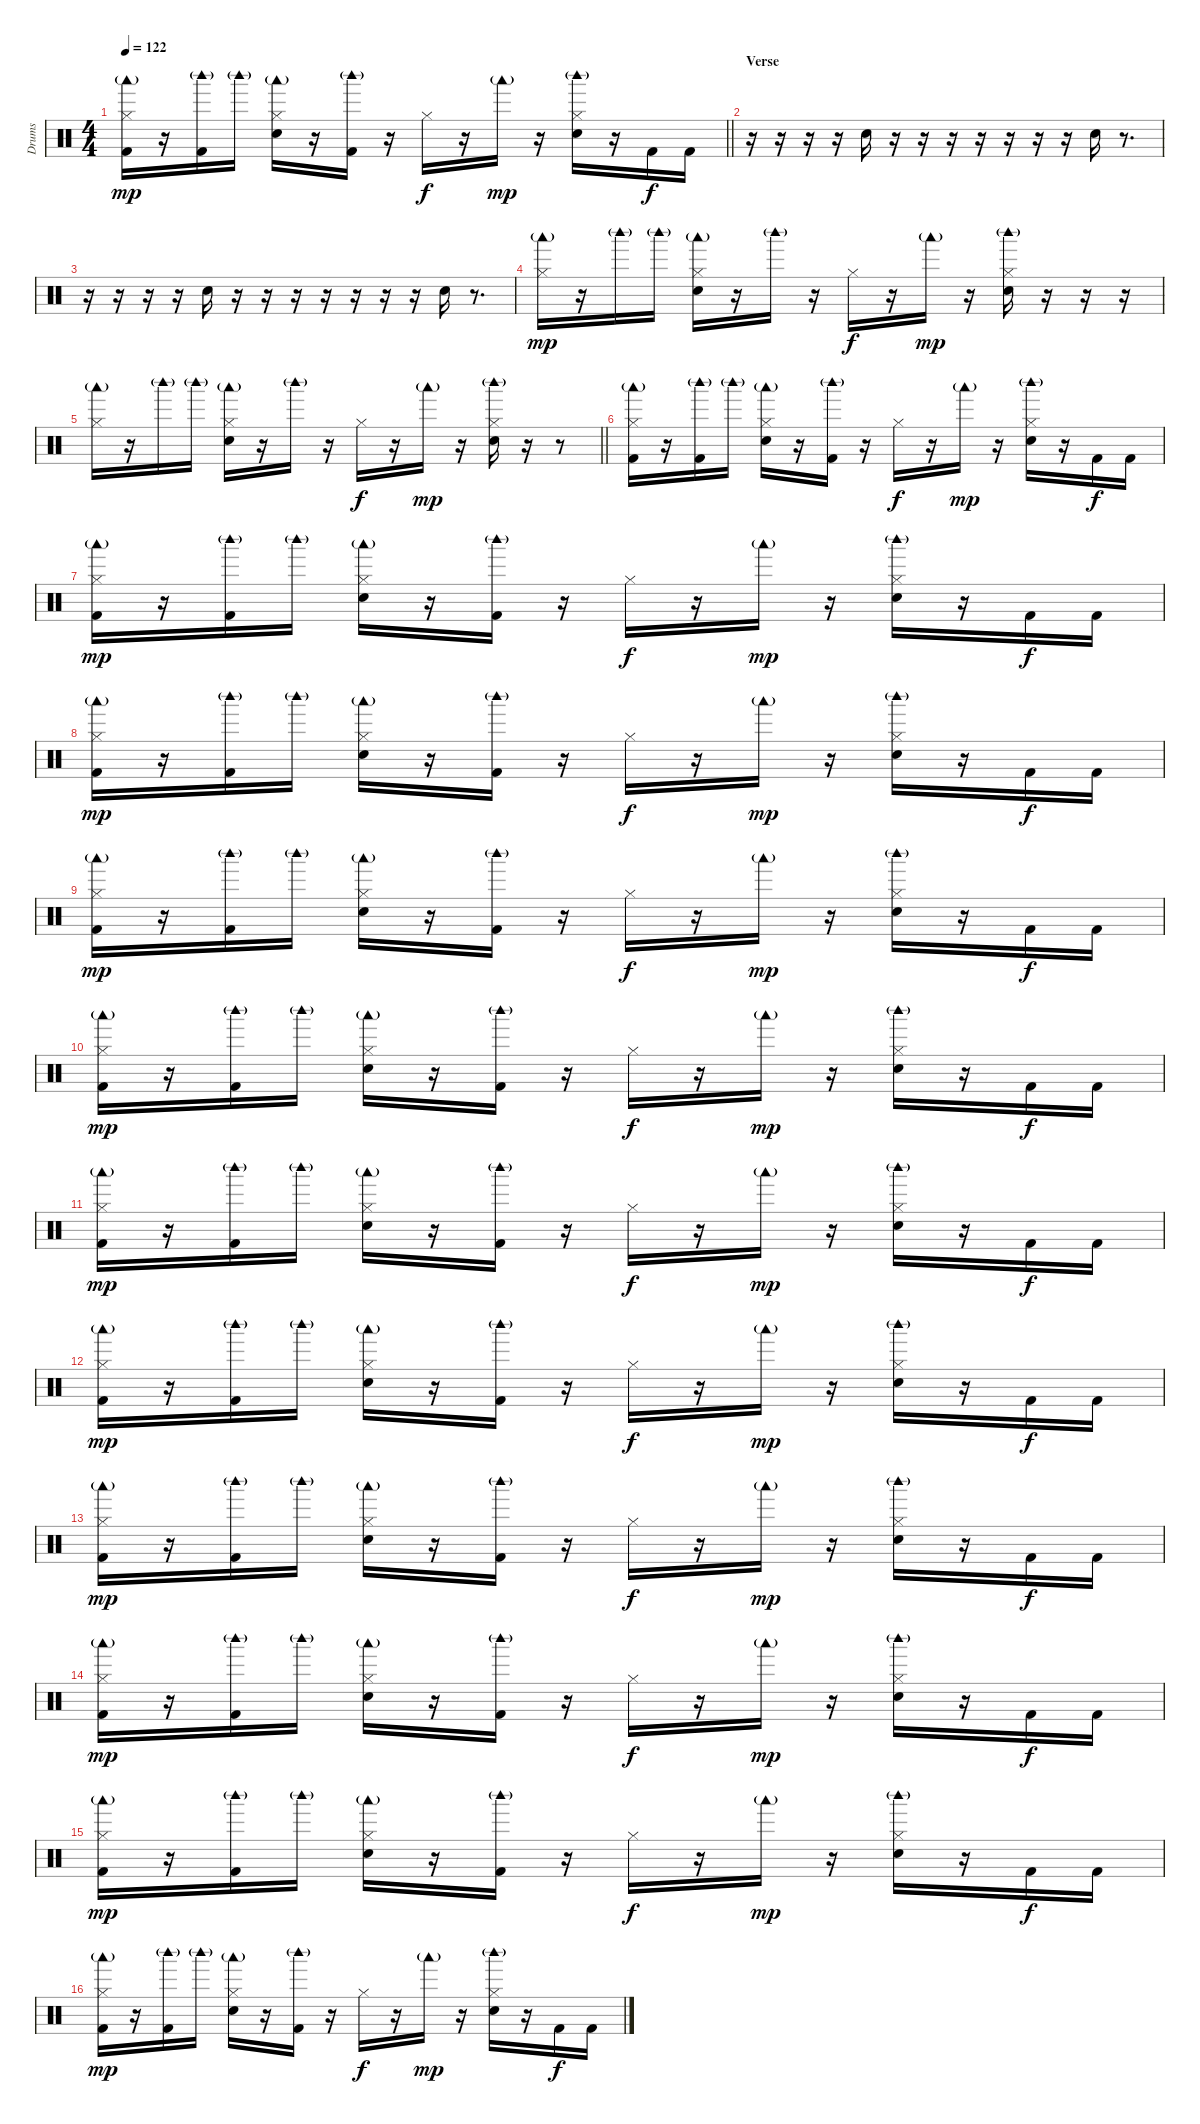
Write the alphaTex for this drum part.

\track ("Drums" "Drums") {instrument percussion}
\staff {score}
\articulation defaults
\ts (4 4)
\tempo 122
\clef neutral
\barLineRight lightlight
\ks c
("Hi-Hat (closed)" "Woodblock low (hit)"{g} "Kick (hit) 2").16{dy mp} r.16 ("Woodblock high (hit)"{g} "Kick (hit) 2").16 "Woodblock high (hit)"{g}.16 ("Hi-Hat (closed)" "Hand Clap (hit)" "Woodblock low (hit)"{g}).16 r.16 ("Woodblock high (hit)"{g} "Kick (hit) 2").16 r.16 "Hi-Hat (closed)".16{dy f} r.16 "Woodblock low (hit)"{g}.16{dy mp} r.16 ("Hi-Hat (closed)" "Hand Clap (hit)" "Woodblock high (hit)"{g}).16 r.16 "Kick (hit) 2".16{dy f} "Kick (hit) 2".16 |
\section ("" "Verse")
r.16 r.16 r.16 r.16 "Hand Clap (hit)".16 r.16 r.16 r.16 r.16 r.16 r.16 r.16 "Hand Clap (hit)".16 r.8{d} |
r.16 r.16 r.16 r.16 "Hand Clap (hit)".16 r.16 r.16 r.16 r.16 r.16 r.16 r.16 "Hand Clap (hit)".16 r.8{d} |
("Hi-Hat (closed)" "Woodblock low (hit)"{g}).16{dy mp} r.16 "Woodblock high (hit)"{g}.16 "Woodblock high (hit)"{g}.16 ("Hi-Hat (closed)" "Hand Clap (hit)" "Woodblock low (hit)"{g}).16 r.16 "Woodblock high (hit)"{g}.16 r.16 "Hi-Hat (closed)".16{dy f} r.16 "Woodblock low (hit)"{g}.16{dy mp} r.16 ("Hi-Hat (closed)" "Hand Clap (hit)" "Woodblock high (hit)"{g}).16 r.16 r.16 r.16 |
\barLineRight lightlight
("Hi-Hat (closed)" "Woodblock low (hit)"{g}).16 r.16 "Woodblock high (hit)"{g}.16 "Woodblock high (hit)"{g}.16 ("Hi-Hat (closed)" "Hand Clap (hit)" "Woodblock low (hit)"{g}).16 r.16 "Woodblock high (hit)"{g}.16 r.16 "Hi-Hat (closed)".16{dy f} r.16 "Woodblock low (hit)"{g}.16{dy mp} r.16 ("Hi-Hat (closed)" "Hand Clap (hit)" "Woodblock high (hit)"{g}).16 r.16 r.8 |
("Hi-Hat (closed)" "Woodblock low (hit)"{g} "Kick (hit) 2").16 r.16 ("Woodblock high (hit)"{g} "Kick (hit) 2").16 "Woodblock high (hit)"{g}.16 ("Hi-Hat (closed)" "Hand Clap (hit)" "Woodblock low (hit)"{g}).16 r.16 ("Woodblock high (hit)"{g} "Kick (hit) 2").16 r.16 "Hi-Hat (closed)".16{dy f} r.16 "Woodblock low (hit)"{g}.16{dy mp} r.16 ("Hi-Hat (closed)" "Hand Clap (hit)" "Woodblock high (hit)"{g}).16 r.16 "Kick (hit) 2".16{dy f} "Kick (hit) 2".16 |
("Hi-Hat (closed)" "Woodblock low (hit)"{g} "Kick (hit) 2").16{dy mp} r.16 ("Woodblock high (hit)"{g} "Kick (hit) 2").16 "Woodblock high (hit)"{g}.16 ("Hi-Hat (closed)" "Hand Clap (hit)" "Woodblock low (hit)"{g}).16 r.16 ("Woodblock high (hit)"{g} "Kick (hit) 2").16 r.16 "Hi-Hat (closed)".16{dy f} r.16 "Woodblock low (hit)"{g}.16{dy mp} r.16 ("Hi-Hat (closed)" "Hand Clap (hit)" "Woodblock high (hit)"{g}).16 r.16 "Kick (hit) 2".16{dy f} "Kick (hit) 2".16 |
("Hi-Hat (closed)" "Woodblock low (hit)"{g} "Kick (hit) 2").16{dy mp} r.16 ("Woodblock high (hit)"{g} "Kick (hit) 2").16 "Woodblock high (hit)"{g}.16 ("Hi-Hat (closed)" "Hand Clap (hit)" "Woodblock low (hit)"{g}).16 r.16 ("Woodblock high (hit)"{g} "Kick (hit) 2").16 r.16 "Hi-Hat (closed)".16{dy f} r.16 "Woodblock low (hit)"{g}.16{dy mp} r.16 ("Hi-Hat (closed)" "Hand Clap (hit)" "Woodblock high (hit)"{g}).16 r.16 "Kick (hit) 2".16{dy f} "Kick (hit) 2".16 |
("Hi-Hat (closed)" "Woodblock low (hit)"{g} "Kick (hit) 2").16{dy mp} r.16 ("Woodblock high (hit)"{g} "Kick (hit) 2").16 "Woodblock high (hit)"{g}.16 ("Hi-Hat (closed)" "Hand Clap (hit)" "Woodblock low (hit)"{g}).16 r.16 ("Woodblock high (hit)"{g} "Kick (hit) 2").16 r.16 "Hi-Hat (closed)".16{dy f} r.16 "Woodblock low (hit)"{g}.16{dy mp} r.16 ("Hi-Hat (closed)" "Hand Clap (hit)" "Woodblock high (hit)"{g}).16 r.16 "Kick (hit) 2".16{dy f} "Kick (hit) 2".16 |
("Hi-Hat (closed)" "Woodblock low (hit)"{g} "Kick (hit) 2").16{dy mp} r.16 ("Woodblock high (hit)"{g} "Kick (hit) 2").16 "Woodblock high (hit)"{g}.16 ("Hi-Hat (closed)" "Hand Clap (hit)" "Woodblock low (hit)"{g}).16 r.16 ("Woodblock high (hit)"{g} "Kick (hit) 2").16 r.16 "Hi-Hat (closed)".16{dy f} r.16 "Woodblock low (hit)"{g}.16{dy mp} r.16 ("Hi-Hat (closed)" "Hand Clap (hit)" "Woodblock high (hit)"{g}).16 r.16 "Kick (hit) 2".16{dy f} "Kick (hit) 2".16 |
("Hi-Hat (closed)" "Woodblock low (hit)"{g} "Kick (hit) 2").16{dy mp} r.16 ("Woodblock high (hit)"{g} "Kick (hit) 2").16 "Woodblock high (hit)"{g}.16 ("Hi-Hat (closed)" "Hand Clap (hit)" "Woodblock low (hit)"{g}).16 r.16 ("Woodblock high (hit)"{g} "Kick (hit) 2").16 r.16 "Hi-Hat (closed)".16{dy f} r.16 "Woodblock low (hit)"{g}.16{dy mp} r.16 ("Hi-Hat (closed)" "Hand Clap (hit)" "Woodblock high (hit)"{g}).16 r.16 "Kick (hit) 2".16{dy f} "Kick (hit) 2".16 |
("Hi-Hat (closed)" "Woodblock low (hit)"{g} "Kick (hit) 2").16{dy mp} r.16 ("Woodblock high (hit)"{g} "Kick (hit) 2").16 "Woodblock high (hit)"{g}.16 ("Hi-Hat (closed)" "Hand Clap (hit)" "Woodblock low (hit)"{g}).16 r.16 ("Woodblock high (hit)"{g} "Kick (hit) 2").16 r.16 "Hi-Hat (closed)".16{dy f} r.16 "Woodblock low (hit)"{g}.16{dy mp} r.16 ("Hi-Hat (closed)" "Hand Clap (hit)" "Woodblock high (hit)"{g}).16 r.16 "Kick (hit) 2".16{dy f} "Kick (hit) 2".16 |
("Hi-Hat (closed)" "Woodblock low (hit)"{g} "Kick (hit) 2").16{dy mp} r.16 ("Woodblock high (hit)"{g} "Kick (hit) 2").16 "Woodblock high (hit)"{g}.16 ("Hi-Hat (closed)" "Hand Clap (hit)" "Woodblock low (hit)"{g}).16 r.16 ("Woodblock high (hit)"{g} "Kick (hit) 2").16 r.16 "Hi-Hat (closed)".16{dy f} r.16 "Woodblock low (hit)"{g}.16{dy mp} r.16 ("Hi-Hat (closed)" "Hand Clap (hit)" "Woodblock high (hit)"{g}).16 r.16 "Kick (hit) 2".16{dy f} "Kick (hit) 2".16 |
("Hi-Hat (closed)" "Woodblock low (hit)"{g} "Kick (hit) 2").16{dy mp} r.16 ("Woodblock high (hit)"{g} "Kick (hit) 2").16 "Woodblock high (hit)"{g}.16 ("Hi-Hat (closed)" "Hand Clap (hit)" "Woodblock low (hit)"{g}).16 r.16 ("Woodblock high (hit)"{g} "Kick (hit) 2").16 r.16 "Hi-Hat (closed)".16{dy f} r.16 "Woodblock low (hit)"{g}.16{dy mp} r.16 ("Hi-Hat (closed)" "Hand Clap (hit)" "Woodblock high (hit)"{g}).16 r.16 "Kick (hit) 2".16{dy f} "Kick (hit) 2".16 |
("Hi-Hat (closed)" "Woodblock low (hit)"{g} "Kick (hit) 2").16{dy mp} r.16 ("Woodblock high (hit)"{g} "Kick (hit) 2").16 "Woodblock high (hit)"{g}.16 ("Hi-Hat (closed)" "Hand Clap (hit)" "Woodblock low (hit)"{g}).16 r.16 ("Woodblock high (hit)"{g} "Kick (hit) 2").16 r.16 "Hi-Hat (closed)".16{dy f} r.16 "Woodblock low (hit)"{g}.16{dy mp} r.16 ("Hi-Hat (closed)" "Hand Clap (hit)" "Woodblock high (hit)"{g}).16 r.16 "Kick (hit) 2".16{dy f} "Kick (hit) 2".16 |
("Hi-Hat (closed)" "Woodblock low (hit)"{g} "Kick (hit) 2").16{dy mp} r.16 ("Woodblock high (hit)"{g} "Kick (hit) 2").16 "Woodblock high (hit)"{g}.16 ("Hi-Hat (closed)" "Hand Clap (hit)" "Woodblock low (hit)"{g}).16 r.16 ("Woodblock high (hit)"{g} "Kick (hit) 2").16 r.16 "Hi-Hat (closed)".16{dy f} r.16 "Woodblock low (hit)"{g}.16{dy mp} r.16 ("Hi-Hat (closed)" "Hand Clap (hit)" "Woodblock high (hit)"{g}).16 r.16 "Kick (hit) 2".16{dy f} "Kick (hit) 2".16
